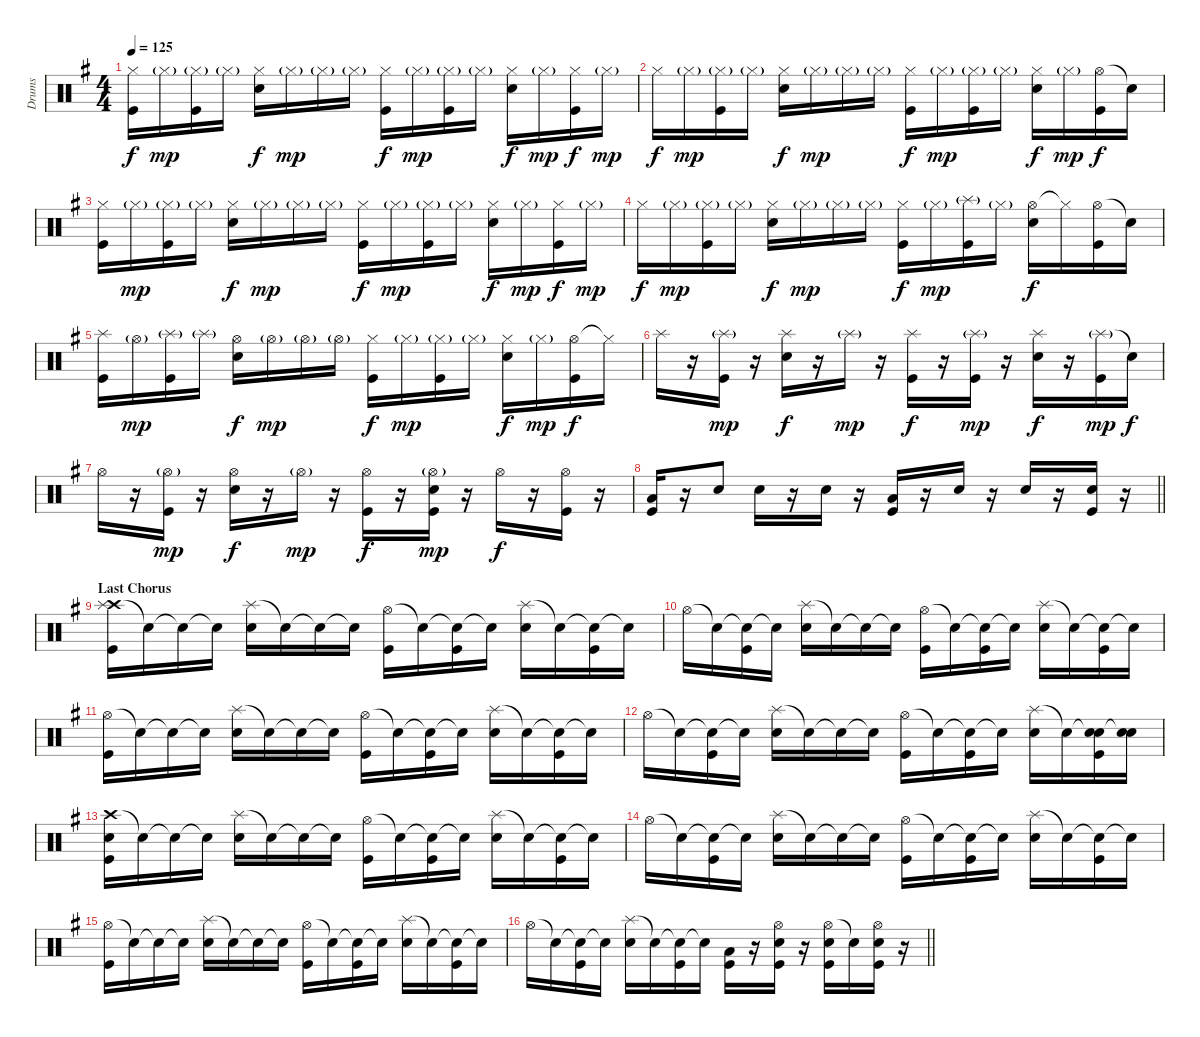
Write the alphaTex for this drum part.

\track ("Drums" "Drums") {instrument percussion}
\staff {score}
\articulation defaults
\ts (4 4)
\tempo 125
\clef neutral
\ks g
("Hi-Hat (closed)" "Kick (hit)").16{dy f} "Hi-Hat (closed)"{g}.16{dy mp} ("Hi-Hat (closed)"{g} "Kick (hit)").16 "Hi-Hat (closed)"{g}.16 ("Hi-Hat (closed)" "Electric Snare (hit)").16{dy f} "Hi-Hat (closed)"{g}.16{dy mp} "Hi-Hat (closed)"{g}.16 "Hi-Hat (closed)"{g}.16 ("Hi-Hat (closed)" "Kick (hit)").16{dy f} "Hi-Hat (closed)"{g}.16{dy mp} ("Hi-Hat (closed)"{g} "Kick (hit)").16 "Hi-Hat (closed)"{g}.16 ("Hi-Hat (closed)" "Electric Snare (hit)").16{dy f} "Hi-Hat (closed)"{g}.16{dy mp} ("Hi-Hat (closed)" "Kick (hit)").16{dy f} "Hi-Hat (closed)"{g}.16{dy mp} |
"Hi-Hat (closed)".16{dy f} "Hi-Hat (closed)"{g}.16{dy mp} ("Hi-Hat (closed)"{g} "Kick (hit)").16 "Hi-Hat (closed)"{g}.16 ("Hi-Hat (closed)" "Electric Snare (hit)").16{dy f} "Hi-Hat (closed)"{g}.16{dy mp} "Hi-Hat (closed)"{g}.16 "Hi-Hat (closed)"{g}.16 ("Hi-Hat (closed)" "Kick (hit)").16{dy f} "Hi-Hat (closed)"{g}.16{dy mp} ("Hi-Hat (closed)"{g} "Kick (hit)").16 "Hi-Hat (closed)"{g}.16 ("Hi-Hat (closed)" "Electric Snare (hit)").16{dy f} "Hi-Hat (closed)"{g}.16{dy mp} ("Hi-Hat (open)" "Kick (hit)").16{dy f} "Snare (hit)"{t}.16 |
("Hi-Hat (closed)" "Kick (hit)").16 "Hi-Hat (closed)"{g}.16{dy mp} ("Hi-Hat (closed)"{g} "Kick (hit)").16 "Hi-Hat (closed)"{g}.16 ("Hi-Hat (closed)" "Electric Snare (hit)").16{dy f} "Hi-Hat (closed)"{g}.16{dy mp} "Hi-Hat (closed)"{g}.16 "Hi-Hat (closed)"{g}.16 ("Hi-Hat (closed)" "Kick (hit)").16{dy f} "Hi-Hat (closed)"{g}.16{dy mp} ("Hi-Hat (closed)"{g} "Kick (hit)").16 "Hi-Hat (closed)"{g}.16 ("Hi-Hat (closed)" "Electric Snare (hit)").16{dy f} "Hi-Hat (closed)"{g}.16{dy mp} ("Hi-Hat (closed)" "Kick (hit)").16{dy f} "Hi-Hat (closed)"{g}.16{dy mp} |
"Hi-Hat (closed)".16{dy f} "Hi-Hat (closed)"{g}.16{dy mp} ("Hi-Hat (closed)"{g} "Kick (hit)").16 "Hi-Hat (closed)"{g}.16 ("Hi-Hat (closed)" "Electric Snare (hit)").16{dy f} "Hi-Hat (closed)"{g}.16{dy mp} "Hi-Hat (closed)"{g}.16 "Hi-Hat (closed)"{g}.16 ("Hi-Hat (closed)" "Kick (hit)").16{dy f} "Hi-Hat (closed)"{g}.16{dy mp} ("Splash (hit)"{g} "Kick (hit)").16 "Hi-Hat (closed)"{g}.16 ("Hi-Hat (open)" "Electric Snare (hit)").16{dy f} "Hi-Hat (closed)"{t}.16 ("Hi-Hat (open)" "Kick (hit)").16 "Snare (hit)"{t}.16 |
("Splash (hit)" "Kick (hit)").16 "Hi-Hat (open)"{g}.16{dy mp} ("Splash (hit)"{g} "Kick (hit)").16 "Splash (hit)"{g}.16 ("Hi-Hat (open)" "Electric Snare (hit)").16{dy f} "Hi-Hat (open)"{g}.16{dy mp} "Hi-Hat (open)"{g}.16 "Hi-Hat (open)"{g}.16 ("Hi-Hat (closed)" "Kick (hit)").16{dy f} "Hi-Hat (closed)"{g}.16{dy mp} ("Hi-Hat (closed)"{g} "Kick (hit)").16 "Hi-Hat (closed)"{g}.16 ("Hi-Hat (closed)" "Electric Snare (hit)").16{dy f} "Hi-Hat (closed)"{g}.16{dy mp} ("Hi-Hat (open)" "Kick (hit)").16{dy f} "Hi-Hat (closed)"{t}.16 |
"Splash (hit)".16 r.16 ("Splash (hit)"{g} "Kick (hit)").16{dy mp} r.16 ("Splash (hit)" "Electric Snare (hit)").16{dy f} r.16 "Splash (hit)"{g}.16{dy mp} r.16 ("Splash (hit)" "Kick (hit)").16{dy f} r.16 ("Splash (hit)"{g} "Kick (hit)").16{dy mp} r.16 ("Splash (hit)" "Electric Snare (hit)").16{dy f} r.16 ("Splash (hit)"{g} "Kick (hit)").16{dy mp} "Snare (hit)"{t}.16{dy f} |
"Hi-Hat (open)".16 r.16 ("Hi-Hat (open)"{g} "Kick (hit)").16{dy mp} r.16 ("Hi-Hat (open)" "Electric Snare (hit)").16{dy f} r.16 "Hi-Hat (open)"{g}.16{dy mp} r.16 ("Hi-Hat (open)" "Kick (hit)").16{dy f} r.16 ("Hi-Hat (open)"{g} "Electric Snare (hit)" "Kick (hit)").16{dy mp} r.16 "Hi-Hat (open)".16{dy f} r.16 ("Hi-Hat (open)" "Kick (hit)").16 r.16 |
\barLineRight lightlight
("Low Floor Tom (hit)" "Kick (hit)").16 r.16 "Electric Snare (hit)".8 "Electric Snare (hit)".16 r.16 "Electric Snare (hit)".16 r.16 ("Low Floor Tom (hit)" "Kick (hit)").16 r.16 "Electric Snare (hit)".16 r.16 "Electric Snare (hit)".16 r.16 ("Electric Snare (hit)" "Kick (hit)").16 r.16 |
\section ("" "Last Chorus")
("Crash high (hit)" "Splash (hit)" "Kick (hit)").16 "Snare (hit)"{t}.16 "Snare (hit)"{t}.16 "Snare (hit)"{t}.16 ("Splash (hit)" "Electric Snare (hit)").16 "Snare (hit)"{t}.16 "Snare (hit)"{t}.16 "Snare (hit)"{t}.16 ("Hi-Hat (open)" "Kick (hit)").16 "Snare (hit)"{t}.16 ("Snare (hit)"{t} "Kick (hit)").16 "Snare (hit)"{t}.16 ("Splash (hit)" "Electric Snare (hit)").16 "Snare (hit)"{t}.16 ("Snare (hit)"{t} "Kick (hit)").16 "Snare (hit)"{t}.16 |
"Hi-Hat (open)".16 "Snare (hit)"{t}.16 ("Snare (hit)"{t} "Kick (hit)").16 "Snare (hit)"{t}.16 ("Splash (hit)" "Electric Snare (hit)").16 "Snare (hit)"{t}.16 "Snare (hit)"{t}.16 "Snare (hit)"{t}.16 ("Hi-Hat (open)" "Kick (hit)").16 "Snare (hit)"{t}.16 ("Snare (hit)"{t} "Kick (hit)").16 "Snare (hit)"{t}.16 ("Splash (hit)" "Electric Snare (hit)").16 "Snare (hit)"{t}.16 ("Snare (hit)"{t} "Kick (hit)").16 "Snare (hit)"{t}.16 |
("Hi-Hat (open)" "Kick (hit)").16 "Snare (hit)"{t}.16 "Snare (hit)"{t}.16 "Snare (hit)"{t}.16 ("Splash (hit)" "Electric Snare (hit)").16 "Snare (hit)"{t}.16 "Snare (hit)"{t}.16 "Snare (hit)"{t}.16 ("Hi-Hat (open)" "Kick (hit)").16 "Snare (hit)"{t}.16 ("Snare (hit)"{t} "Kick (hit)").16 "Snare (hit)"{t}.16 ("Splash (hit)" "Electric Snare (hit)").16 "Snare (hit)"{t}.16 ("Snare (hit)"{t} "Kick (hit)").16 "Snare (hit)"{t}.16 |
"Hi-Hat (open)".16 "Snare (hit)"{t}.16 ("Snare (hit)"{t} "Kick (hit)").16 "Snare (hit)"{t}.16 ("Splash (hit)" "Electric Snare (hit)").16 "Snare (hit)"{t}.16 "Snare (hit)"{t}.16 "Snare (hit)"{t}.16 ("Hi-Hat (open)" "Kick (hit)").16 "Snare (hit)"{t}.16 ("Snare (hit)"{t} "Kick (hit)").16 "Snare (hit)"{t}.16 ("Splash (hit)" "Electric Snare (hit)").16 "Snare (hit)"{t}.16 ("Snare (hit)"{t} "Electric Snare (hit)" "Kick (hit)").16 ("Snare (hit)"{t} "Electric Snare (hit)").16 |
("Crash high (hit)" "Electric Snare (hit)" "Kick (hit)").16 "Snare (hit)"{t}.16 "Snare (hit)"{t}.16 "Snare (hit)"{t}.16 ("Splash (hit)" "Electric Snare (hit)").16 "Snare (hit)"{t}.16 "Snare (hit)"{t}.16 "Snare (hit)"{t}.16 ("Hi-Hat (open)" "Kick (hit)").16 "Snare (hit)"{t}.16 ("Snare (hit)"{t} "Kick (hit)").16 "Snare (hit)"{t}.16 ("Splash (hit)" "Electric Snare (hit)").16 "Snare (hit)"{t}.16 ("Snare (hit)"{t} "Kick (hit)").16 "Snare (hit)"{t}.16 |
"Hi-Hat (open)".16 "Snare (hit)"{t}.16 ("Snare (hit)"{t} "Kick (hit)").16 "Snare (hit)"{t}.16 ("Splash (hit)" "Electric Snare (hit)").16 "Snare (hit)"{t}.16 "Snare (hit)"{t}.16 "Snare (hit)"{t}.16 ("Hi-Hat (open)" "Kick (hit)").16 "Snare (hit)"{t}.16 ("Snare (hit)"{t} "Kick (hit)").16 "Snare (hit)"{t}.16 ("Splash (hit)" "Electric Snare (hit)").16 "Snare (hit)"{t}.16 ("Snare (hit)"{t} "Kick (hit)").16 "Snare (hit)"{t}.16 |
("Hi-Hat (open)" "Kick (hit)").16 "Snare (hit)"{t}.16 "Snare (hit)"{t}.16 "Snare (hit)"{t}.16 ("Splash (hit)" "Electric Snare (hit)").16 "Snare (hit)"{t}.16 "Snare (hit)"{t}.16 "Snare (hit)"{t}.16 ("Hi-Hat (open)" "Kick (hit)").16 "Snare (hit)"{t}.16 ("Snare (hit)"{t} "Kick (hit)").16 "Snare (hit)"{t}.16 ("Splash (hit)" "Electric Snare (hit)").16 "Snare (hit)"{t}.16 ("Snare (hit)"{t} "Kick (hit)").16 "Snare (hit)"{t}.16 |
\barLineRight lightlight "Hi-Hat (open)".16 "Snare (hit)"{t}.16
("Snare (hit)"{t} "Kick (hit)").16 "Snare (hit)"{t}.16 ("Splash (hit)" "Electric Snare (hit)").16 "Snare (hit)"{t}.16 ("Snare (hit)"{t} "Kick (hit)").16 "Snare (hit)"{t}.16 ("Low Floor Tom (hit)" "Kick (hit)").16 r.16 ("Hi-Hat (open)" "Electric Snare (hit)" "Kick (hit)").16 r.16 ("Hi-Hat (open)" "Electric Snare (hit)" "Kick (hit)").16 "Snare (hit)"{t}.16 ("Hi-Hat (open)" "Electric Snare (hit)" "Kick (hit)").16 r.16
